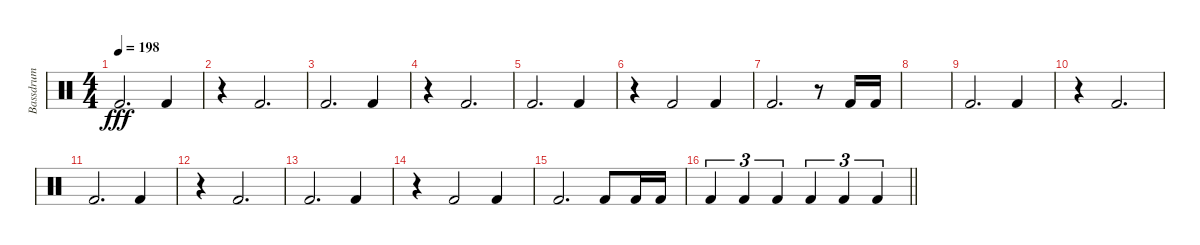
\track ("Bassdrum" "Bassdrum") {instrument percussion}
\staff {score}
\articulation defaults
\ts (4 4)
\section ("" "")
\tempo 198
\clef neutral
\ks c "Kick (hit) 2".2{d dy fff} "Kick (hit) 2".4
|
r.4 "Kick (hit) 2".2{d} |
"Kick (hit) 2".2{d} "Kick (hit) 2".4 |
r.4 "Kick (hit) 2".2{d} |
"Kick (hit) 2".2{d} "Kick (hit) 2".4 |
r.4 "Kick (hit) 2".2 "Kick (hit) 2".4 |
"Kick (hit) 2".2{d} r.8 "Kick (hit) 2".16 "Kick (hit) 2".16 |
|
"Kick (hit) 2".2{d} "Kick (hit) 2".4 |
r.4 "Kick (hit) 2".2{d} |
"Kick (hit) 2".2{d} "Kick (hit) 2".4 |
r.4 "Kick (hit) 2".2{d} |
"Kick (hit) 2".2{d} "Kick (hit) 2".4 |
r.4 "Kick (hit) 2".2 "Kick (hit) 2".4 |
"Kick (hit) 2".2{d} "Kick (hit) 2".8 "Kick (hit) 2".16 "Kick (hit) 2".16 |
\barLineRight lightlight "Kick (hit) 2".4{tu (3 2)} "Kick (hit) 2".4{tu (3 2)} "Kick (hit) 2".4{tu (3 2)} "Kick (hit) 2".4{tu (3 2)} "Kick (hit) 2".4{tu (3 2)} "Kick (hit) 2".4{tu (3 2)}
